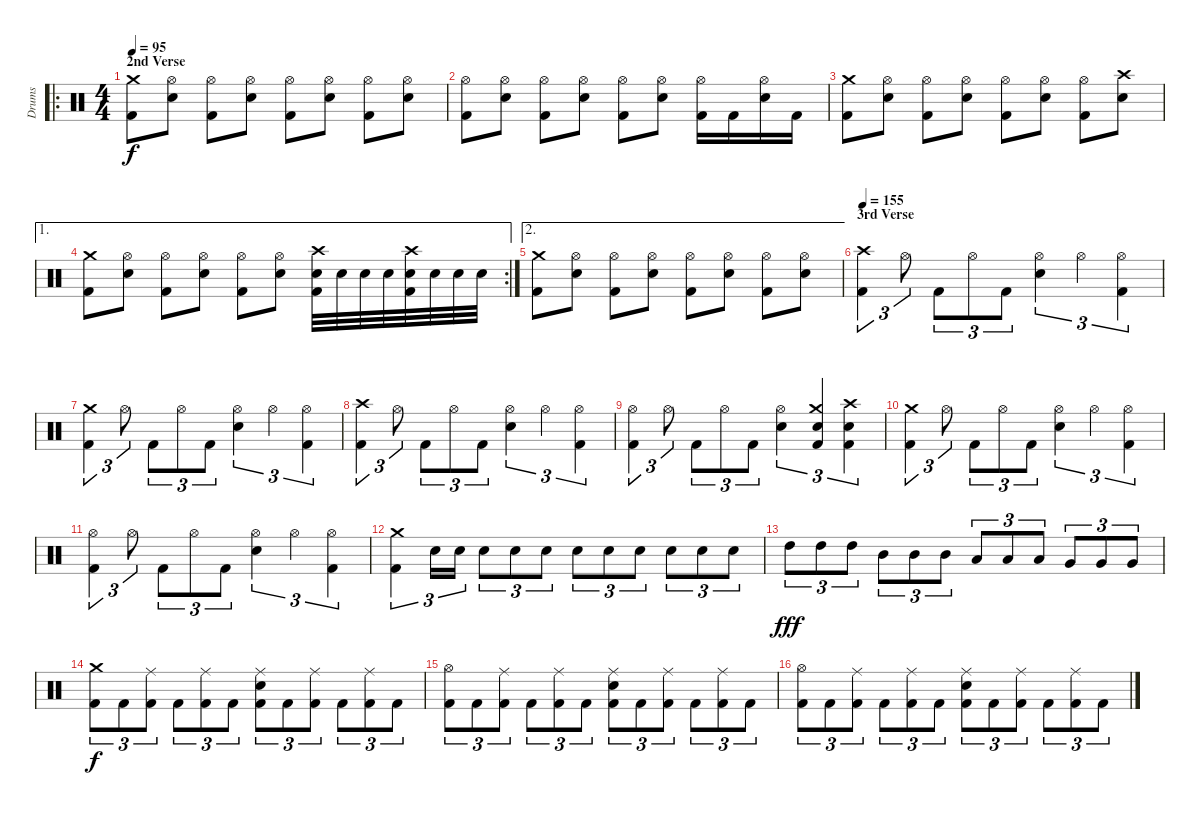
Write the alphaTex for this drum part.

\track ("Drums" "Drums") {instrument percussion}
\staff {score}
\articulation defaults
\ro
\ts (4 4)
\section ("" "2nd Verse")
\tempo 95
\clef neutral
\ks c
("Kick (hit) 2" "Crash medium (hit)").8{dy f} ("Electric Snare (hit)" "Hi-Hat (open)").8 ("Kick (hit) 2" "Hi-Hat (open)").8 ("Electric Snare (hit)" "Hi-Hat (open)").8 ("Kick (hit) 2" "Hi-Hat (open)").8 ("Electric Snare (hit)" "Hi-Hat (open)").8 ("Kick (hit) 2" "Hi-Hat (open)").8 ("Electric Snare (hit)" "Hi-Hat (open)").8 |
("Kick (hit) 2" "Hi-Hat (open)").8 ("Electric Snare (hit)" "Hi-Hat (open)").8 ("Kick (hit) 2" "Hi-Hat (open)").8 ("Electric Snare (hit)" "Hi-Hat (open)").8 ("Kick (hit) 2" "Hi-Hat (open)").8 ("Electric Snare (hit)" "Hi-Hat (open)").8 ("Kick (hit) 2" "Hi-Hat (open)").16 "Kick (hit) 2".16 ("Electric Snare (hit)" "Hi-Hat (open)").16 "Kick (hit) 2".16 |
("Kick (hit) 2" "Crash medium (hit)").8 ("Electric Snare (hit)" "Hi-Hat (open)").8 ("Kick (hit) 2" "Hi-Hat (open)").8 ("Electric Snare (hit)" "Hi-Hat (open)").8 ("Kick (hit) 2" "Hi-Hat (open)").8 ("Electric Snare (hit)" "Hi-Hat (open)").8 ("Kick (hit) 2" "Hi-Hat (open)").8 ("Electric Snare (hit)" "Crash high (hit)").8 |
\ae 1
\rc 2
("Kick (hit) 2" "Crash medium (hit)").8 ("Electric Snare (hit)" "Hi-Hat (open)").8 ("Kick (hit) 2" "Hi-Hat (open)").8 ("Electric Snare (hit)" "Hi-Hat (open)").8 ("Kick (hit) 2" "Hi-Hat (open)").8 ("Electric Snare (hit)" "Hi-Hat (open)").8 ("Kick (hit) 2" "Electric Snare (hit)" "Crash high (hit)").32 "Electric Snare (hit)".32 "Electric Snare (hit)".32 "Electric Snare (hit)".32 ("Kick (hit) 2" "Electric Snare (hit)" "Crash high (hit)").32 "Electric Snare (hit)".32 "Electric Snare (hit)".32 "Electric Snare (hit)".32 |
\ae 2
("Kick (hit) 2" "Crash medium (hit)").8 ("Electric Snare (hit)" "Hi-Hat (open)").8 ("Kick (hit) 2" "Hi-Hat (open)").8 ("Electric Snare (hit)" "Hi-Hat (open)").8 ("Kick (hit) 2" "Hi-Hat (open)").8 ("Electric Snare (hit)" "Hi-Hat (open)").8 ("Kick (hit) 2" "Hi-Hat (open)").8 ("Electric Snare (hit)" "Hi-Hat (open)").8 |
\section ("" "3rd Verse")
\tempo 155
("Kick (hit) 2" "Crash high (hit)").4{tu (3 2)} "Hi-Hat (open)".8{tu (3 2)} "Kick (hit) 2".8{tu (3 2)} "Hi-Hat (open)".8{tu (3 2)} "Kick (hit) 2".8{tu (3 2)} ("Electric Snare (hit)" "Hi-Hat (open)").4{tu (3 2)} "Hi-Hat (open)".4{tu (3 2)} ("Kick (hit) 2" "Hi-Hat (open)").4{tu (3 2)} |
("Kick (hit) 2" "Crash medium (hit)").4{tu (3 2)} "Hi-Hat (open)".8{tu (3 2)} "Kick (hit) 2".8{tu (3 2)} "Hi-Hat (open)".8{tu (3 2)} "Kick (hit) 2".8{tu (3 2)} ("Electric Snare (hit)" "Hi-Hat (open)").4{tu (3 2)} "Hi-Hat (open)".4{tu (3 2)} ("Kick (hit) 2" "Hi-Hat (open)").4{tu (3 2)} |
("Kick (hit) 2" "Crash high (hit)").4{tu (3 2)} "Hi-Hat (open)".8{tu (3 2)} "Kick (hit) 2".8{tu (3 2)} "Hi-Hat (open)".8{tu (3 2)} "Kick (hit) 2".8{tu (3 2)} ("Electric Snare (hit)" "Hi-Hat (open)").4{tu (3 2)} "Hi-Hat (open)".4{tu (3 2)} ("Kick (hit) 2" "Hi-Hat (open)").4{tu (3 2)} |
("Kick (hit) 2" "Hi-Hat (open)").4{tu (3 2)} "Hi-Hat (open)".8{tu (3 2)} "Kick (hit) 2".8{tu (3 2)} "Hi-Hat (open)".8{tu (3 2)} "Kick (hit) 2".8{tu (3 2)} ("Electric Snare (hit)" "Hi-Hat (open)").4{tu (3 2)} ("Kick (hit) 2" "Electric Snare (hit)" "Crash medium (hit)").4{tu (3 2)} ("Kick (hit) 2" "Electric Snare (hit)" "Crash high (hit)").4{tu (3 2)} |
("Kick (hit) 2" "Crash medium (hit)").4{tu (3 2)} "Hi-Hat (open)".8{tu (3 2)} "Kick (hit) 2".8{tu (3 2)} "Hi-Hat (open)".8{tu (3 2)} "Kick (hit) 2".8{tu (3 2)} ("Electric Snare (hit)" "Hi-Hat (open)").4{tu (3 2)} "Hi-Hat (open)".4{tu (3 2)} ("Kick (hit) 2" "Hi-Hat (open)").4{tu (3 2)} |
("Kick (hit) 2" "Hi-Hat (open)").4{tu (3 2)} "Hi-Hat (open)".8{tu (3 2)} "Kick (hit) 2".8{tu (3 2)} "Hi-Hat (open)".8{tu (3 2)} "Kick (hit) 2".8{tu (3 2)} ("Electric Snare (hit)" "Hi-Hat (open)").4{tu (3 2)} "Hi-Hat (open)".4{tu (3 2)} ("Kick (hit) 2" "Hi-Hat (open)").4{tu (3 2)} |
("Kick (hit) 2" "Crash medium (hit)").4{tu (3 2)} "Electric Snare (hit)".16{tu (3 2)} "Electric Snare (hit)".16{tu (3 2)} "Electric Snare (hit)".8{tu (3 2)} "Electric Snare (hit)".8{tu (3 2)} "Electric Snare (hit)".8{tu (3 2)} "Electric Snare (hit)".8{tu (3 2)} "Electric Snare (hit)".8{tu (3 2)} "Electric Snare (hit)".8{tu (3 2)} "Electric Snare (hit)".8{tu (3 2)} "Electric Snare (hit)".8{tu (3 2)} "Electric Snare (hit)".8{tu (3 2)} |
"High Tom (hit)".8{tu (3 2) dy fff} "High Tom (hit)".8{tu (3 2)} "High Tom (hit)".8{tu (3 2)} "Mid Tom (hit)".8{tu (3 2)} "Mid Tom (hit)".8{tu (3 2)} "Mid Tom (hit)".8{tu (3 2)} "Low Tom (hit)".8{tu (3 2)} "Low Tom (hit)".8{tu (3 2)} "Low Tom (hit)".8{tu (3 2)} "Very Low Tom (hit)".8{tu (3 2)} "Very Low Tom (hit)".8{tu (3 2)} "Very Low Tom (hit)".8{tu (3 2)} |
("Kick (hit) 2" "Crash medium (hit)").8{tu (3 2) dy f} "Kick (hit) 2".8{tu (3 2)} ("Kick (hit) 2" "Ride (middle)").8{tu (3 2)} "Kick (hit) 2".8{tu (3 2)} ("Kick (hit) 2" "Ride (middle)").8{tu (3 2)} "Kick (hit) 2".8{tu (3 2)} ("Kick (hit) 2" "Electric Snare (hit)" "Ride (middle)").8{tu (3 2)} "Kick (hit) 2".8{tu (3 2)} ("Kick (hit) 2" "Ride (middle)").8{tu (3 2)} "Kick (hit) 2".8{tu (3 2)} ("Kick (hit) 2" "Ride (middle)").8{tu (3 2)} "Kick (hit) 2".8{tu (3 2)} |
("Kick (hit) 2" "Hi-Hat (open)").8{tu (3 2)} "Kick (hit) 2".8{tu (3 2)} ("Kick (hit) 2" "Ride (middle)").8{tu (3 2)} "Kick (hit) 2".8{tu (3 2)} ("Kick (hit) 2" "Ride (middle)").8{tu (3 2)} "Kick (hit) 2".8{tu (3 2)} ("Kick (hit) 2" "Electric Snare (hit)" "Ride (middle)").8{tu (3 2)} "Kick (hit) 2".8{tu (3 2)} ("Kick (hit) 2" "Ride (middle)").8{tu (3 2)} "Kick (hit) 2".8{tu (3 2)} ("Kick (hit) 2" "Ride (middle)").8{tu (3 2)} "Kick (hit) 2".8{tu (3 2)} |
("Kick (hit) 2" "Hi-Hat (open)").8{tu (3 2)} "Kick (hit) 2".8{tu (3 2)} ("Kick (hit) 2" "Ride (middle)").8{tu (3 2)} "Kick (hit) 2".8{tu (3 2)} ("Kick (hit) 2" "Ride (middle)").8{tu (3 2)} "Kick (hit) 2".8{tu (3 2)} ("Kick (hit) 2" "Electric Snare (hit)" "Ride (middle)").8{tu (3 2)} "Kick (hit) 2".8{tu (3 2)} ("Kick (hit) 2" "Ride (middle)").8{tu (3 2)} "Kick (hit) 2".8{tu (3 2)} ("Kick (hit) 2" "Ride (middle)").8{tu (3 2)} "Kick (hit) 2".8{tu (3 2)}
